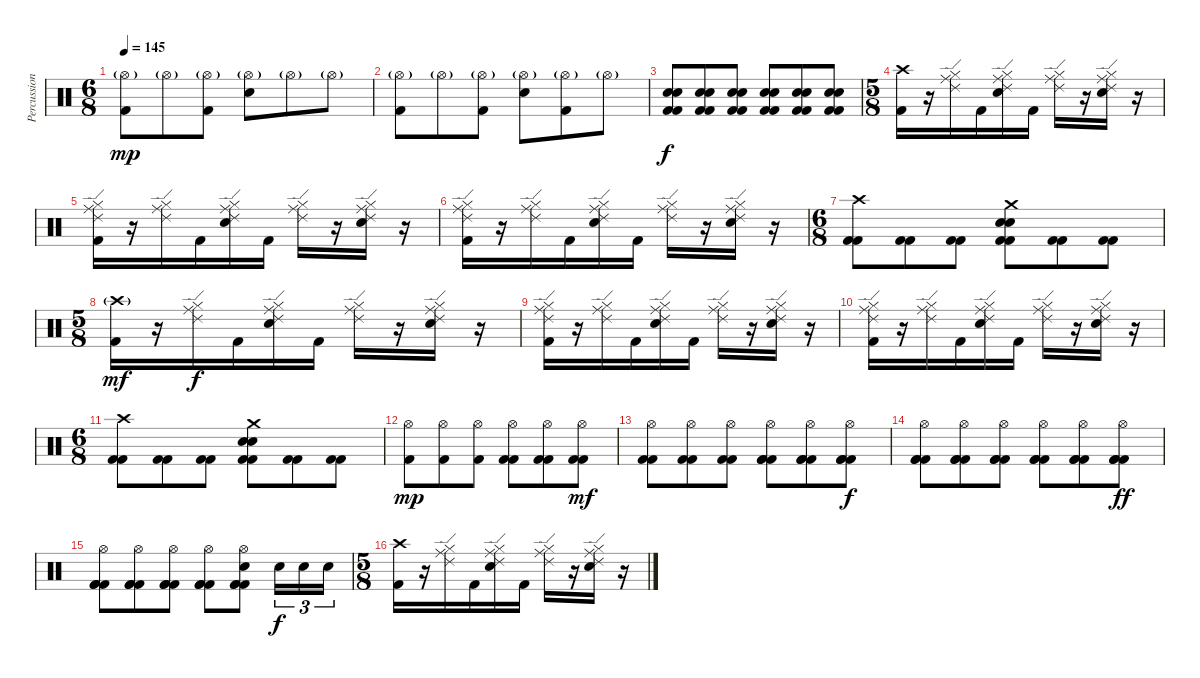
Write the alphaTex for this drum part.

\track ("Percussion" "Percussion") {instrument percussion}
\staff {score}
\articulation defaults
\ts (6 8)
\tempo 145
\clef neutral
\ks c
("Hi-Hat (open)"{g} "Kick (hit) 2").8{dy mp} "Hi-Hat (open)"{g}.8 ("Hi-Hat (open)"{g} "Kick (hit) 2").8 ("Hi-Hat (open)"{g} "Electric Snare (hit)").8 "Hi-Hat (open)"{g}.8 "Hi-Hat (open)"{g}.8 |
("Hi-Hat (open)"{g} "Kick (hit) 2").8 "Hi-Hat (open)"{g}.8 ("Hi-Hat (open)"{g} "Kick (hit) 2").8 ("Hi-Hat (open)"{g} "Electric Snare (hit)").8 ("Hi-Hat (open)"{g} "Kick (hit) 2").8 "Hi-Hat (open)"{g}.8 |
("Electric Snare (hit)" "Electric Snare (hit)" "Kick (hit) 2" "Kick (hit) 2").8{dy f} ("Electric Snare (hit)" "Electric Snare (hit)" "Kick (hit) 2" "Kick (hit) 2").8 ("Electric Snare (hit)" "Electric Snare (hit)" "Kick (hit) 2" "Kick (hit) 2").8 ("Electric Snare (hit)" "Electric Snare (hit)" "Kick (hit) 2" "Kick (hit) 2").8 ("Electric Snare (hit)" "Electric Snare (hit)" "Kick (hit) 2" "Kick (hit) 2").8 ("Electric Snare (hit)" "Electric Snare (hit)" "Kick (hit) 2" "Kick (hit) 2").8 |
\ts (5 8)
("Crash high (hit)" "Kick (hit) 2").16 r.16 ("Ride (middle)" "Ride (edge) 2" "Hi-Hat (closed)").16 "Kick (hit) 2".16 ("Ride (middle)" "Electric Snare (hit)" "Ride (edge) 2" "Hi-Hat (closed)").16 "Kick (hit) 2".16 ("Ride (middle)" "Ride (edge) 2" "Hi-Hat (closed)").16 r.16 ("Ride (middle)" "Electric Snare (hit)" "Ride (edge) 2" "Hi-Hat (closed)").16 r.16 |
("Ride (middle)" "Kick (hit) 2" "Ride (edge) 2" "Hi-Hat (closed)").16 r.16 ("Ride (middle)" "Ride (edge) 2" "Hi-Hat (closed)").16 "Kick (hit) 2".16 ("Ride (middle)" "Electric Snare (hit)" "Ride (edge) 2" "Hi-Hat (closed)").16 "Kick (hit) 2".16 ("Ride (middle)" "Ride (edge) 2" "Hi-Hat (closed)").16 r.16 ("Ride (middle)" "Electric Snare (hit)" "Ride (edge) 2" "Hi-Hat (closed)").16 r.16 |
("Ride (middle)" "Kick (hit) 2" "Ride (edge) 2" "Hi-Hat (closed)").16 r.16 ("Ride (middle)" "Ride (edge) 2" "Hi-Hat (closed)").16 "Kick (hit) 2".16 ("Ride (middle)" "Electric Snare (hit)" "Ride (edge) 2" "Hi-Hat (closed)").16 "Kick (hit) 2".16 ("Ride (middle)" "Ride (edge) 2" "Hi-Hat (closed)").16 r.16 ("Ride (middle)" "Electric Snare (hit)" "Ride (edge) 2" "Hi-Hat (closed)").16 r.16 |
\ts (6 8)
("Crash high (hit)" "Kick (hit) 2" "Kick (hit) 2").8 ("Kick (hit) 2" "Kick (hit) 2").8 ("Kick (hit) 2" "Kick (hit) 2").8 ("Crash medium (hit)" "Electric Snare (hit)" "Electric Snare (hit)" "Kick (hit) 2" "Kick (hit) 2").8 ("Kick (hit) 2" "Kick (hit) 2").8 ("Kick (hit) 2" "Kick (hit) 2").8 |
\ts (5 8)
("Crash high (hit)"{g} "Kick (hit) 2").16{dy mf} r.16 ("Ride (middle)" "Ride (edge) 2" "Hi-Hat (closed)").16{dy f} "Kick (hit) 2".16 ("Ride (middle)" "Electric Snare (hit)" "Ride (edge) 2" "Hi-Hat (closed)").16 "Kick (hit) 2".16 ("Ride (middle)" "Ride (edge) 2" "Hi-Hat (closed)").16 r.16 ("Ride (middle)" "Electric Snare (hit)" "Ride (edge) 2" "Hi-Hat (closed)").16 r.16 |
("Ride (middle)" "Kick (hit) 2" "Ride (edge) 2" "Hi-Hat (closed)").16 r.16 ("Ride (middle)" "Ride (edge) 2" "Hi-Hat (closed)").16 "Kick (hit) 2".16 ("Ride (middle)" "Electric Snare (hit)" "Ride (edge) 2" "Hi-Hat (closed)").16 "Kick (hit) 2".16 ("Ride (middle)" "Ride (edge) 2" "Hi-Hat (closed)").16 r.16 ("Ride (middle)" "Electric Snare (hit)" "Ride (edge) 2" "Hi-Hat (closed)").16 r.16 |
("Ride (middle)" "Kick (hit) 2" "Ride (edge) 2" "Hi-Hat (closed)").16 r.16 ("Ride (middle)" "Ride (edge) 2" "Hi-Hat (closed)").16 "Kick (hit) 2".16 ("Ride (middle)" "Electric Snare (hit)" "Ride (edge) 2" "Hi-Hat (closed)").16 "Kick (hit) 2".16 ("Ride (middle)" "Ride (edge) 2" "Hi-Hat (closed)").16 r.16 ("Ride (middle)" "Electric Snare (hit)" "Ride (edge) 2" "Hi-Hat (closed)").16 r.16 |
\ts (6 8)
("Crash high (hit)" "Kick (hit) 2" "Kick (hit) 2").8 ("Kick (hit) 2" "Kick (hit) 2").8 ("Kick (hit) 2" "Kick (hit) 2").8 ("Crash medium (hit)" "Electric Snare (hit)" "Electric Snare (hit)" "Kick (hit) 2" "Kick (hit) 2").8 ("Kick (hit) 2" "Kick (hit) 2").8 ("Kick (hit) 2" "Kick (hit) 2").8 |
("Hi-Hat (open)" "Kick (hit) 2").8{dy mp} ("Hi-Hat (open)" "Kick (hit) 2").8 ("Hi-Hat (open)" "Kick (hit) 2").8 ("Hi-Hat (open)" "Kick (hit) 2" "Kick (hit) 2").8 ("Hi-Hat (open)" "Kick (hit) 2" "Kick (hit) 2").8 ("Hi-Hat (open)" "Kick (hit) 2" "Kick (hit) 2").8{dy mf} |
("Hi-Hat (open)" "Kick (hit) 2" "Kick (hit) 2").8 ("Hi-Hat (open)" "Kick (hit) 2" "Kick (hit) 2").8 ("Hi-Hat (open)" "Kick (hit) 2" "Kick (hit) 2").8 ("Hi-Hat (open)" "Kick (hit) 2" "Kick (hit) 2" "Kick (hit) 2").8 ("Hi-Hat (open)" "Kick (hit) 2" "Kick (hit) 2" "Kick (hit) 2").8 ("Hi-Hat (open)" "Kick (hit) 2" "Kick (hit) 2" "Kick (hit) 2").8{dy f} |
("Hi-Hat (open)" "Kick (hit) 2" "Kick (hit) 2" "Kick (hit) 2").8 ("Hi-Hat (open)" "Kick (hit) 2" "Kick (hit) 2" "Kick (hit) 2").8 ("Hi-Hat (open)" "Kick (hit) 2" "Kick (hit) 2" "Kick (hit) 2").8 ("Hi-Hat (open)" "Kick (hit) 2" "Kick (hit) 2" "Kick (hit) 2").8 ("Hi-Hat (open)" "Kick (hit) 2" "Kick (hit) 2" "Kick (hit) 2").8 ("Hi-Hat (open)" "Kick (hit) 2" "Kick (hit) 2" "Kick (hit) 2").8{dy ff} |
("Hi-Hat (open)" "Kick (hit) 2" "Kick (hit) 2" "Kick (hit) 2").8 ("Hi-Hat (open)" "Kick (hit) 2" "Kick (hit) 2" "Kick (hit) 2").8 ("Hi-Hat (open)" "Kick (hit) 2" "Kick (hit) 2" "Kick (hit) 2").8 ("Hi-Hat (open)" "Kick (hit) 2" "Kick (hit) 2" "Kick (hit) 2").8 ("Hi-Hat (open)" "Electric Snare (hit)" "Kick (hit) 2" "Kick (hit) 2" "Kick (hit) 2").8 "Electric Snare (hit)".16{tu (3 2) dy f} "Electric Snare (hit)".16{tu (3 2)} "Electric Snare (hit)".16{tu (3 2)} |
\ts (5 8)
("Crash high (hit)" "Kick (hit) 2").16 r.16 ("Ride (middle)" "Ride (edge) 2" "Hi-Hat (closed)").16 "Kick (hit) 2".16 ("Ride (middle)" "Electric Snare (hit)" "Ride (edge) 2" "Hi-Hat (closed)").16 "Kick (hit) 2".16 ("Ride (middle)" "Ride (edge) 2" "Hi-Hat (closed)").16 r.16 ("Ride (middle)" "Electric Snare (hit)" "Ride (edge) 2" "Hi-Hat (closed)").16 r.16
